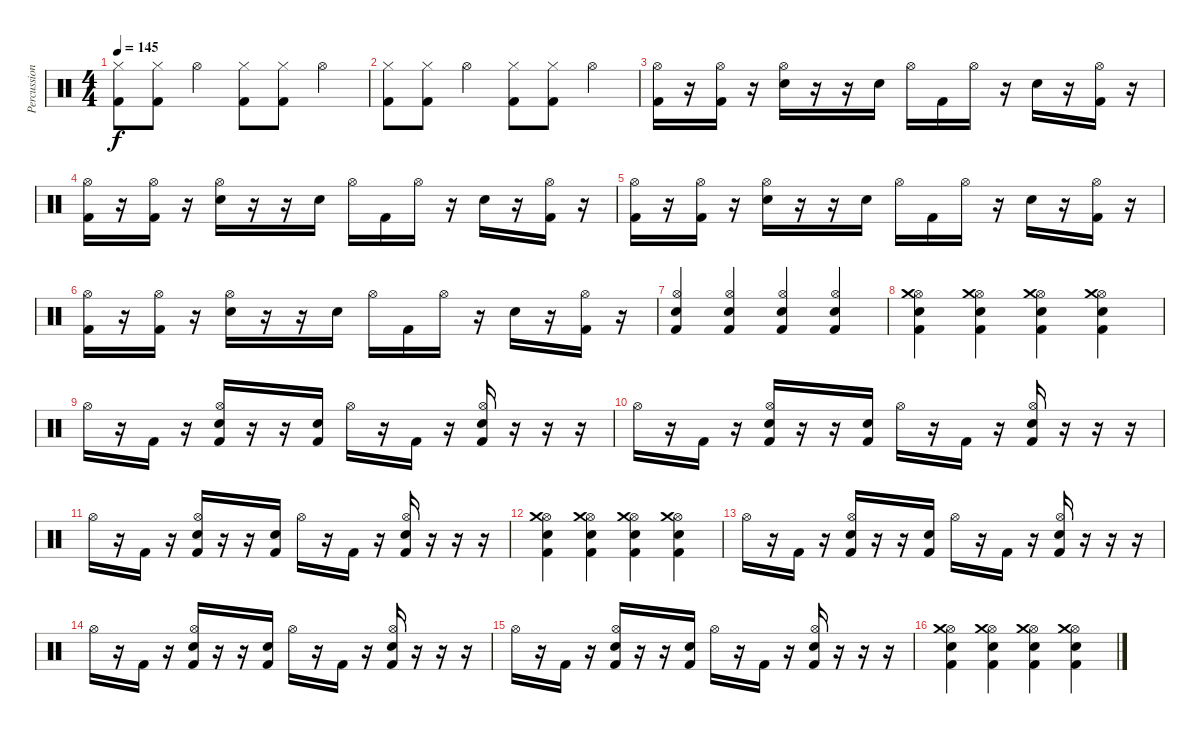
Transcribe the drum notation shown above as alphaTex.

\track ("Percussions" "Percussion") {instrument percussion}
\staff {score}
\articulation defaults
\ts (4 4)
\tempo 145
\clef neutral
\ks c
("Hi-Hat (closed)" "Kick (hit) 2").8{dy f} ("Hi-Hat (closed)" "Kick (hit) 2").8 "Hi-Hat (open)".4 ("Hi-Hat (closed)" "Kick (hit) 2").8 ("Hi-Hat (closed)" "Kick (hit) 2").8 "Hi-Hat (open)".4 |
("Hi-Hat (closed)" "Kick (hit) 2").8 ("Hi-Hat (closed)" "Kick (hit) 2").8 "Hi-Hat (open)".4 ("Hi-Hat (closed)" "Kick (hit) 2").8 ("Hi-Hat (closed)" "Kick (hit) 2").8 "Hi-Hat (open)".4 |
("Hi-Hat (open)" "Kick (hit) 2").16 r.16 ("Hi-Hat (open)" "Kick (hit) 2").16 r.16 ("Hi-Hat (open)" "Electric Snare (hit)").16 r.16 r.16 "Electric Snare (hit)".16 "Hi-Hat (open)".16 "Kick (hit) 2".16 "Hi-Hat (open)".16 r.16 "Electric Snare (hit)".16 r.16 ("Hi-Hat (open)" "Kick (hit) 2").16 r.16 |
("Hi-Hat (open)" "Kick (hit) 2").16 r.16 ("Hi-Hat (open)" "Kick (hit) 2").16 r.16 ("Hi-Hat (open)" "Electric Snare (hit)").16 r.16 r.16 "Electric Snare (hit)".16 "Hi-Hat (open)".16 "Kick (hit) 2".16 "Hi-Hat (open)".16 r.16 "Electric Snare (hit)".16 r.16 ("Hi-Hat (open)" "Kick (hit) 2").16 r.16 |
("Hi-Hat (open)" "Kick (hit) 2").16 r.16 ("Hi-Hat (open)" "Kick (hit) 2").16 r.16 ("Hi-Hat (open)" "Electric Snare (hit)").16 r.16 r.16 "Electric Snare (hit)".16 "Hi-Hat (open)".16 "Kick (hit) 2".16 "Hi-Hat (open)".16 r.16 "Electric Snare (hit)".16 r.16 ("Hi-Hat (open)" "Kick (hit) 2").16 r.16 |
("Hi-Hat (open)" "Kick (hit) 2").16 r.16 ("Hi-Hat (open)" "Kick (hit) 2").16 r.16 ("Hi-Hat (open)" "Electric Snare (hit)").16 r.16 r.16 "Electric Snare (hit)".16 "Hi-Hat (open)".16 "Kick (hit) 2".16 "Hi-Hat (open)".16 r.16 "Electric Snare (hit)".16 r.16 ("Hi-Hat (open)" "Kick (hit) 2").16 r.16 |
("Hi-Hat (open)" "Electric Snare (hit)" "Kick (hit) 2").4 ("Hi-Hat (open)" "Electric Snare (hit)" "Kick (hit) 2").4 ("Hi-Hat (open)" "Electric Snare (hit)" "Kick (hit) 2").4 ("Hi-Hat (open)" "Electric Snare (hit)" "Kick (hit) 2").4 |
("Hi-Hat (open)" "Electric Snare (hit)" "Crash medium (hit)" "Kick (hit) 2").4 ("Hi-Hat (open)" "Electric Snare (hit)" "Crash medium (hit)" "Kick (hit) 2").4 ("Hi-Hat (open)" "Electric Snare (hit)" "Crash medium (hit)" "Kick (hit) 2").4 ("Hi-Hat (open)" "Electric Snare (hit)" "Crash medium (hit)" "Kick (hit) 2").4 |
"Hi-Hat (open)".16 r.16 "Kick (hit) 2".16 r.16 ("Hi-Hat (open)" "Electric Snare (hit)" "Kick (hit) 2").16 r.16 r.16 ("Electric Snare (hit)" "Kick (hit) 2").16 "Hi-Hat (open)".16 r.16 "Kick (hit) 2".16 r.16 ("Hi-Hat (open)" "Electric Snare (hit)" "Kick (hit) 2").16 r.16 r.16 r.16 |
"Hi-Hat (open)".16 r.16 "Kick (hit) 2".16 r.16 ("Hi-Hat (open)" "Electric Snare (hit)" "Kick (hit) 2").16 r.16 r.16 ("Electric Snare (hit)" "Kick (hit) 2").16 "Hi-Hat (open)".16 r.16 "Kick (hit) 2".16 r.16 ("Hi-Hat (open)" "Electric Snare (hit)" "Kick (hit) 2").16 r.16 r.16 r.16 |
"Hi-Hat (open)".16 r.16 "Kick (hit) 2".16 r.16 ("Hi-Hat (open)" "Electric Snare (hit)" "Kick (hit) 2").16 r.16 r.16 ("Electric Snare (hit)" "Kick (hit) 2").16 "Hi-Hat (open)".16 r.16 "Kick (hit) 2".16 r.16 ("Hi-Hat (open)" "Electric Snare (hit)" "Kick (hit) 2").16 r.16 r.16 r.16 |
("Hi-Hat (open)" "Electric Snare (hit)" "Crash medium (hit)" "Kick (hit) 2").4 ("Hi-Hat (open)" "Electric Snare (hit)" "Crash medium (hit)" "Kick (hit) 2").4 ("Hi-Hat (open)" "Electric Snare (hit)" "Crash medium (hit)" "Kick (hit) 2").4 ("Hi-Hat (open)" "Electric Snare (hit)" "Crash medium (hit)" "Kick (hit) 2").4 |
"Hi-Hat (open)".16 r.16 "Kick (hit) 2".16 r.16 ("Hi-Hat (open)" "Electric Snare (hit)" "Kick (hit) 2").16 r.16 r.16 ("Electric Snare (hit)" "Kick (hit) 2").16 "Hi-Hat (open)".16 r.16 "Kick (hit) 2".16 r.16 ("Hi-Hat (open)" "Electric Snare (hit)" "Kick (hit) 2").16 r.16 r.16 r.16 |
"Hi-Hat (open)".16 r.16 "Kick (hit) 2".16 r.16 ("Hi-Hat (open)" "Electric Snare (hit)" "Kick (hit) 2").16 r.16 r.16 ("Electric Snare (hit)" "Kick (hit) 2").16 "Hi-Hat (open)".16 r.16 "Kick (hit) 2".16 r.16 ("Hi-Hat (open)" "Electric Snare (hit)" "Kick (hit) 2").16 r.16 r.16 r.16 |
"Hi-Hat (open)".16 r.16 "Kick (hit) 2".16 r.16 ("Hi-Hat (open)" "Electric Snare (hit)" "Kick (hit) 2").16 r.16 r.16 ("Electric Snare (hit)" "Kick (hit) 2").16 "Hi-Hat (open)".16 r.16 "Kick (hit) 2".16 r.16 ("Hi-Hat (open)" "Electric Snare (hit)" "Kick (hit) 2").16 r.16 r.16 r.16 |
("Hi-Hat (open)" "Electric Snare (hit)" "Crash medium (hit)" "Kick (hit) 2").4 ("Hi-Hat (open)" "Electric Snare (hit)" "Crash medium (hit)" "Kick (hit) 2").4 ("Hi-Hat (open)" "Electric Snare (hit)" "Crash medium (hit)" "Kick (hit) 2").4 ("Hi-Hat (open)" "Electric Snare (hit)" "Crash medium (hit)" "Kick (hit) 2").4
